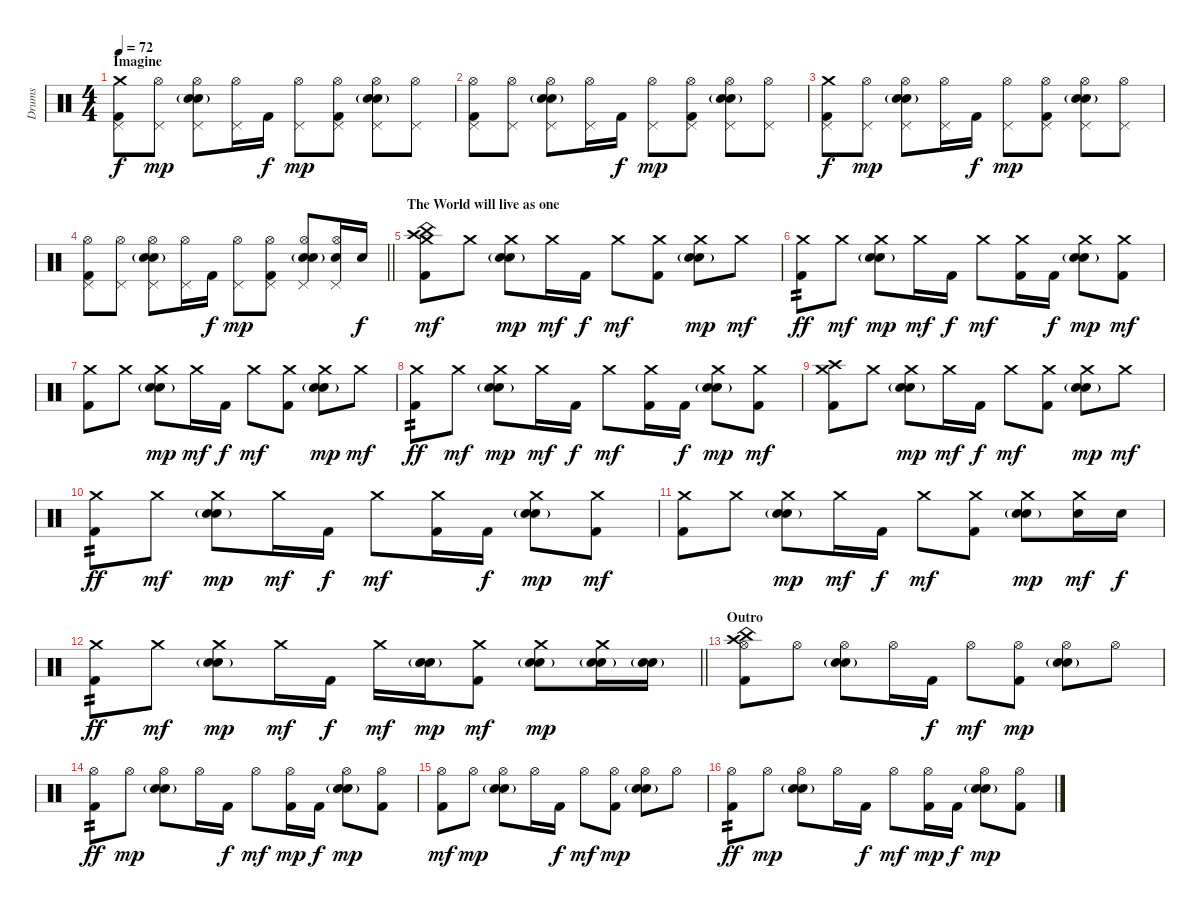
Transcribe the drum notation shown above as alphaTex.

\track ("Drums" "Drums") {instrument percussion}
\staff {score}
\articulation defaults
\ts (4 4)
\section ("" "Imagine")
\tempo 72
\clef neutral
\ks c
("Pedal Hi-Hat (hit)" "Crash medium (hit)" "Kick (hit) 2").8{dy f} ("Pedal Hi-Hat (hit)" "Hi-Hat (open)").8{dy mp} ("Pedal Hi-Hat (hit)" "Hi-Hat (open)" "Snare (hit) 2" "Electric Snare (hit)"{g}).8 ("Pedal Hi-Hat (hit)" "Hi-Hat (open)").16 "Kick (hit) 2".16{dy f} ("Pedal Hi-Hat (hit)" "Hi-Hat (open)").8{dy mp} ("Pedal Hi-Hat (hit)" "Hi-Hat (open)" "Kick (hit) 2").8 ("Pedal Hi-Hat (hit)" "Hi-Hat (open)" "Snare (hit) 2" "Electric Snare (hit)"{g}).8 ("Pedal Hi-Hat (hit)" "Hi-Hat (open)").8 |
("Pedal Hi-Hat (hit)" "Hi-Hat (open)" "Kick (hit) 2").8 ("Pedal Hi-Hat (hit)" "Hi-Hat (open)").8 ("Pedal Hi-Hat (hit)" "Hi-Hat (open)" "Snare (hit) 2" "Electric Snare (hit)"{g}).8 ("Pedal Hi-Hat (hit)" "Hi-Hat (open)").16 "Kick (hit) 2".16{dy f} ("Pedal Hi-Hat (hit)" "Hi-Hat (open)").8{dy mp} ("Pedal Hi-Hat (hit)" "Hi-Hat (open)" "Kick (hit) 2").8 ("Pedal Hi-Hat (hit)" "Hi-Hat (open)" "Snare (hit) 2" "Electric Snare (hit)"{g}).8 ("Pedal Hi-Hat (hit)" "Hi-Hat (open)").8 |
("Pedal Hi-Hat (hit)" "Crash medium (hit)" "Kick (hit) 2").8{dy f} ("Pedal Hi-Hat (hit)" "Hi-Hat (open)").8{dy mp} ("Pedal Hi-Hat (hit)" "Hi-Hat (open)" "Snare (hit) 2" "Electric Snare (hit)"{g}).8 ("Pedal Hi-Hat (hit)" "Hi-Hat (open)").16 "Kick (hit) 2".16{dy f} ("Pedal Hi-Hat (hit)" "Hi-Hat (open)").8{dy mp} ("Pedal Hi-Hat (hit)" "Hi-Hat (open)" "Kick (hit) 2").8 ("Pedal Hi-Hat (hit)" "Hi-Hat (open)" "Snare (hit) 2" "Electric Snare (hit)"{g}).8 ("Pedal Hi-Hat (hit)" "Hi-Hat (open)").8 |
\barLineRight lightlight
("Pedal Hi-Hat (hit)" "Hi-Hat (open)" "Kick (hit) 2").8 ("Pedal Hi-Hat (hit)" "Hi-Hat (open)").8 ("Pedal Hi-Hat (hit)" "Hi-Hat (open)" "Snare (hit) 2" "Electric Snare (hit)"{g}).8 ("Pedal Hi-Hat (hit)" "Hi-Hat (open)").16 "Kick (hit) 2".16{dy f} ("Pedal Hi-Hat (hit)" "Hi-Hat (open)").8{dy mp} ("Pedal Hi-Hat (hit)" "Hi-Hat (open)" "Kick (hit) 2").8 ("Pedal Hi-Hat (hit)" "Hi-Hat (open)" "Snare (hit) 2" "Electric Snare (hit)"{g}).8 ("Pedal Hi-Hat (hit)" "Hi-Hat (open)" "Electric Snare (hit)").16 "Electric Snare (hit)".16{dy f} |
\section ("" "The World will live as one")
("Crash medium (hit)" "Crash high (hit)" "China (hit)" "Kick (hit) 2").8{dy mf} "Crash medium (hit)".8 ("Crash medium (hit)" "Snare (hit) 2" "Electric Snare (hit)"{g}).8{dy mp} "Crash medium (hit)".16{dy mf} "Kick (hit) 2".16{dy f} "Crash medium (hit)".8{dy mf} ("Crash medium (hit)" "Kick (hit) 2").8 ("Crash medium (hit)" "Snare (hit) 2" "Electric Snare (hit)"{g}).8{dy mp} "Crash medium (hit)".8{dy mf} |
("Crash medium (hit)" "Kick (hit) 2").8{tp 2 dy ff} "Crash medium (hit)".8{dy mf} ("Crash medium (hit)" "Snare (hit) 2" "Electric Snare (hit)"{g}).8{dy mp} "Crash medium (hit)".16{dy mf} "Kick (hit) 2".16{dy f} "Crash medium (hit)".8{dy mf} ("Crash medium (hit)" "Kick (hit) 2").16 "Kick (hit) 2".16{dy f} ("Crash medium (hit)" "Snare (hit) 2" "Electric Snare (hit)"{g}).8{dy mp} ("Crash medium (hit)" "Kick (hit) 2").8{dy mf} |
("Crash medium (hit)" "Kick (hit) 2").8 "Crash medium (hit)".8 ("Crash medium (hit)" "Snare (hit) 2" "Electric Snare (hit)"{g}).8{dy mp} "Crash medium (hit)".16{dy mf} "Kick (hit) 2".16{dy f} "Crash medium (hit)".8{dy mf} ("Crash medium (hit)" "Kick (hit) 2").8 ("Crash medium (hit)" "Snare (hit) 2" "Electric Snare (hit)"{g}).8{dy mp} "Crash medium (hit)".8{dy mf} |
("Crash medium (hit)" "Kick (hit) 2").8{tp 2 dy ff} "Crash medium (hit)".8{dy mf} ("Crash medium (hit)" "Snare (hit) 2" "Electric Snare (hit)"{g}).8{dy mp} "Crash medium (hit)".16{dy mf} "Kick (hit) 2".16{dy f} "Crash medium (hit)".8{dy mf} ("Crash medium (hit)" "Kick (hit) 2").16 "Kick (hit) 2".16{dy f} ("Crash medium (hit)" "Snare (hit) 2" "Electric Snare (hit)"{g}).8{dy mp} ("Crash medium (hit)" "Kick (hit) 2").8{dy mf} |
("Crash medium (hit)" "Crash high (hit)" "Kick (hit) 2").8 "Crash medium (hit)".8 ("Crash medium (hit)" "Snare (hit) 2" "Electric Snare (hit)"{g}).8{dy mp} "Crash medium (hit)".16{dy mf} "Kick (hit) 2".16{dy f} "Crash medium (hit)".8{dy mf} ("Crash medium (hit)" "Kick (hit) 2").8 ("Crash medium (hit)" "Snare (hit) 2" "Electric Snare (hit)"{g}).8{dy mp} "Crash medium (hit)".8{dy mf} |
("Crash medium (hit)" "Kick (hit) 2").8{tp 2 dy ff} "Crash medium (hit)".8{dy mf} ("Crash medium (hit)" "Snare (hit) 2" "Electric Snare (hit)"{g}).8{dy mp} "Crash medium (hit)".16{dy mf} "Kick (hit) 2".16{dy f} "Crash medium (hit)".8{dy mf} ("Crash medium (hit)" "Kick (hit) 2").16 "Kick (hit) 2".16{dy f} ("Crash medium (hit)" "Snare (hit) 2" "Electric Snare (hit)"{g}).8{dy mp} ("Crash medium (hit)" "Kick (hit) 2").8{dy mf} |
("Crash medium (hit)" "Kick (hit) 2").8 "Crash medium (hit)".8 ("Crash medium (hit)" "Snare (hit) 2" "Electric Snare (hit)"{g}).8{dy mp} "Crash medium (hit)".16{dy mf} "Kick (hit) 2".16{dy f} "Crash medium (hit)".8{dy mf} ("Crash medium (hit)" "Kick (hit) 2").8 ("Crash medium (hit)" "Snare (hit) 2" "Electric Snare (hit)"{g}).8{dy mp} ("Crash medium (hit)" "Electric Snare (hit)").16{dy mf} "Electric Snare (hit)".16{dy f} |
\barLineRight lightlight
("Crash medium (hit)" "Kick (hit) 2").8{tp 2 dy ff} "Crash medium (hit)".8{dy mf} ("Crash medium (hit)" "Snare (hit) 2" "Electric Snare (hit)"{g}).8{dy mp} "Crash medium (hit)".16{dy mf} "Kick (hit) 2".16{dy f} "Crash medium (hit)".16{dy mf} ("Snare (hit) 2" "Electric Snare (hit)"{g}).16{dy mp} ("Crash medium (hit)" "Kick (hit) 2").8{dy mf} ("Crash medium (hit)" "Snare (hit) 2" "Electric Snare (hit)"{g}).8{dy mp} ("Crash medium (hit)" "Snare (hit) 2"{g} "Electric Snare (hit)").16 ("Snare (hit) 2"{g} "Electric Snare (hit)").16 |
\section ("" "Outro")
("Hi-Hat (open)" "Crash high (hit)" "China (hit)" "Kick (hit) 2").8 "Hi-Hat (open)".8 ("Hi-Hat (open)" "Snare (hit) 2" "Electric Snare (hit)"{g}).8 "Hi-Hat (open)".16 "Kick (hit) 2".16{dy f} "Hi-Hat (open)".8{dy mf} ("Hi-Hat (open)" "Kick (hit) 2").8{dy mp} ("Hi-Hat (open)" "Snare (hit) 2" "Electric Snare (hit)"{g}).8 "Hi-Hat (open)".8 |
("Hi-Hat (open)" "Kick (hit) 2").8{tp 2 dy ff} "Hi-Hat (open)".8{dy mp} ("Hi-Hat (open)" "Snare (hit) 2" "Electric Snare (hit)"{g}).8 "Hi-Hat (open)".16 "Kick (hit) 2".16{dy f} "Hi-Hat (open)".8{dy mf} ("Hi-Hat (open)" "Kick (hit) 2").16{dy mp} "Kick (hit) 2".16{dy f} ("Hi-Hat (open)" "Snare (hit) 2" "Electric Snare (hit)"{g}).8{dy mp} ("Hi-Hat (open)" "Kick (hit) 2").8 |
("Hi-Hat (open)" "Kick (hit) 2").8{dy mf} "Hi-Hat (open)".8{dy mp} ("Hi-Hat (open)" "Snare (hit) 2" "Electric Snare (hit)"{g}).8 "Hi-Hat (open)".16 "Kick (hit) 2".16{dy f} "Hi-Hat (open)".8{dy mf} ("Hi-Hat (open)" "Kick (hit) 2").8{dy mp} ("Hi-Hat (open)" "Snare (hit) 2" "Electric Snare (hit)"{g}).8 "Hi-Hat (open)".8 |
("Hi-Hat (open)" "Kick (hit) 2").8{tp 2 dy ff} "Hi-Hat (open)".8{dy mp} ("Hi-Hat (open)" "Snare (hit) 2" "Electric Snare (hit)"{g}).8 "Hi-Hat (open)".16 "Kick (hit) 2".16{dy f} "Hi-Hat (open)".8{dy mf} ("Hi-Hat (open)" "Kick (hit) 2").16{dy mp} "Kick (hit) 2".16{dy f} ("Hi-Hat (open)" "Snare (hit) 2" "Electric Snare (hit)"{g}).8{dy mp} ("Hi-Hat (open)" "Kick (hit) 2").8
